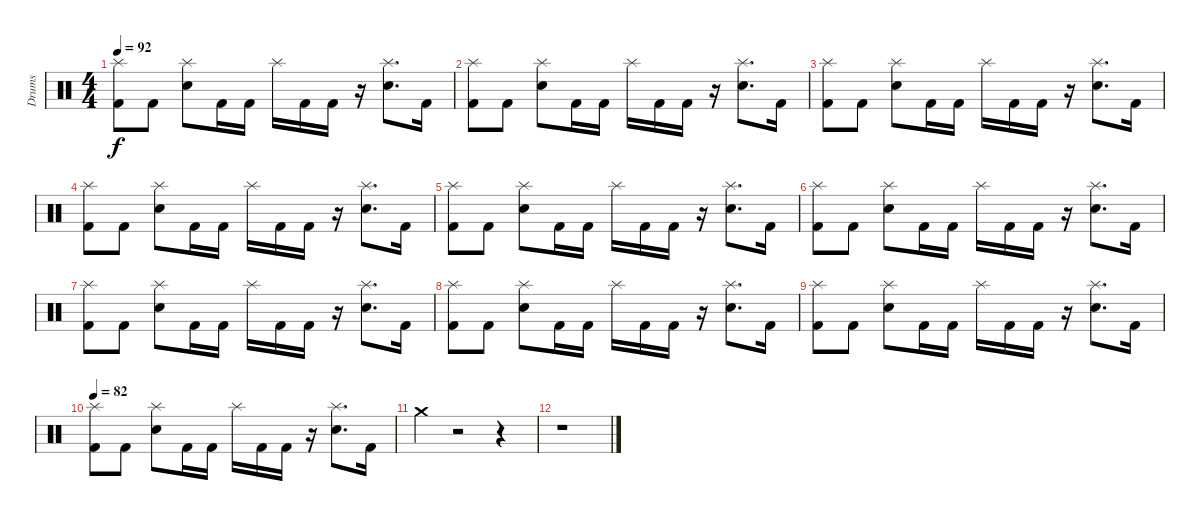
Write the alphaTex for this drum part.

\track ("Drums" "Drums") {instrument percussion}
\staff {score}
\articulation defaults
\ts (4 4)
\tempo 92
\clef neutral
\ks c
("Splash (hit)" "Kick (hit) 2").8{dy f} "Kick (hit) 2".8 ("Splash (hit)" "Electric Snare (hit)").8 "Kick (hit) 2".16 "Kick (hit) 2".16 "Splash (hit)".16 "Kick (hit) 2".16 "Kick (hit) 2".16 r.16 ("Splash (hit)" "Electric Snare (hit)").8{d} "Kick (hit) 2".16 |
("Splash (hit)" "Kick (hit) 2").8 "Kick (hit) 2".8 ("Splash (hit)" "Electric Snare (hit)").8 "Kick (hit) 2".16 "Kick (hit) 2".16 "Splash (hit)".16 "Kick (hit) 2".16 "Kick (hit) 2".16 r.16 ("Splash (hit)" "Electric Snare (hit)").8{d} "Kick (hit) 2".16 |
("Splash (hit)" "Kick (hit) 2").8 "Kick (hit) 2".8 ("Splash (hit)" "Electric Snare (hit)").8 "Kick (hit) 2".16 "Kick (hit) 2".16 "Splash (hit)".16 "Kick (hit) 2".16 "Kick (hit) 2".16 r.16 ("Splash (hit)" "Electric Snare (hit)").8{d} "Kick (hit) 2".16 |
("Splash (hit)" "Kick (hit) 2").8 "Kick (hit) 2".8 ("Splash (hit)" "Electric Snare (hit)").8 "Kick (hit) 2".16 "Kick (hit) 2".16 "Splash (hit)".16 "Kick (hit) 2".16 "Kick (hit) 2".16 r.16 ("Splash (hit)" "Electric Snare (hit)").8{d} "Kick (hit) 2".16 |
("Splash (hit)" "Kick (hit) 2").8 "Kick (hit) 2".8 ("Splash (hit)" "Electric Snare (hit)").8 "Kick (hit) 2".16 "Kick (hit) 2".16 "Splash (hit)".16 "Kick (hit) 2".16 "Kick (hit) 2".16 r.16 ("Splash (hit)" "Electric Snare (hit)").8{d} "Kick (hit) 2".16 |
("Splash (hit)" "Kick (hit) 2").8 "Kick (hit) 2".8 ("Splash (hit)" "Electric Snare (hit)").8 "Kick (hit) 2".16 "Kick (hit) 2".16 "Splash (hit)".16 "Kick (hit) 2".16 "Kick (hit) 2".16 r.16 ("Splash (hit)" "Electric Snare (hit)").8{d} "Kick (hit) 2".16 |
("Splash (hit)" "Kick (hit) 2").8 "Kick (hit) 2".8 ("Splash (hit)" "Electric Snare (hit)").8 "Kick (hit) 2".16 "Kick (hit) 2".16 "Splash (hit)".16 "Kick (hit) 2".16 "Kick (hit) 2".16 r.16 ("Splash (hit)" "Electric Snare (hit)").8{d} "Kick (hit) 2".16 |
("Splash (hit)" "Kick (hit) 2").8 "Kick (hit) 2".8 ("Splash (hit)" "Electric Snare (hit)").8 "Kick (hit) 2".16 "Kick (hit) 2".16 "Splash (hit)".16 "Kick (hit) 2".16 "Kick (hit) 2".16 r.16 ("Splash (hit)" "Electric Snare (hit)").8{d} "Kick (hit) 2".16 |
("Splash (hit)" "Kick (hit) 2").8 "Kick (hit) 2".8 ("Splash (hit)" "Electric Snare (hit)").8 "Kick (hit) 2".16 "Kick (hit) 2".16 "Splash (hit)".16 "Kick (hit) 2".16 "Kick (hit) 2".16 r.16 ("Splash (hit)" "Electric Snare (hit)").8{d} "Kick (hit) 2".16 |
\tempo 82
("Splash (hit)" "Kick (hit) 2").8 "Kick (hit) 2".8 ("Splash (hit)" "Electric Snare (hit)").8 "Kick (hit) 2".16 "Kick (hit) 2".16 "Splash (hit)".16 "Kick (hit) 2".16 "Kick (hit) 2".16 r.16 ("Splash (hit)" "Electric Snare (hit)").8{d} "Kick (hit) 2".16 |
"Crash medium (hit)".4 r.2 r.4 |
r.1
